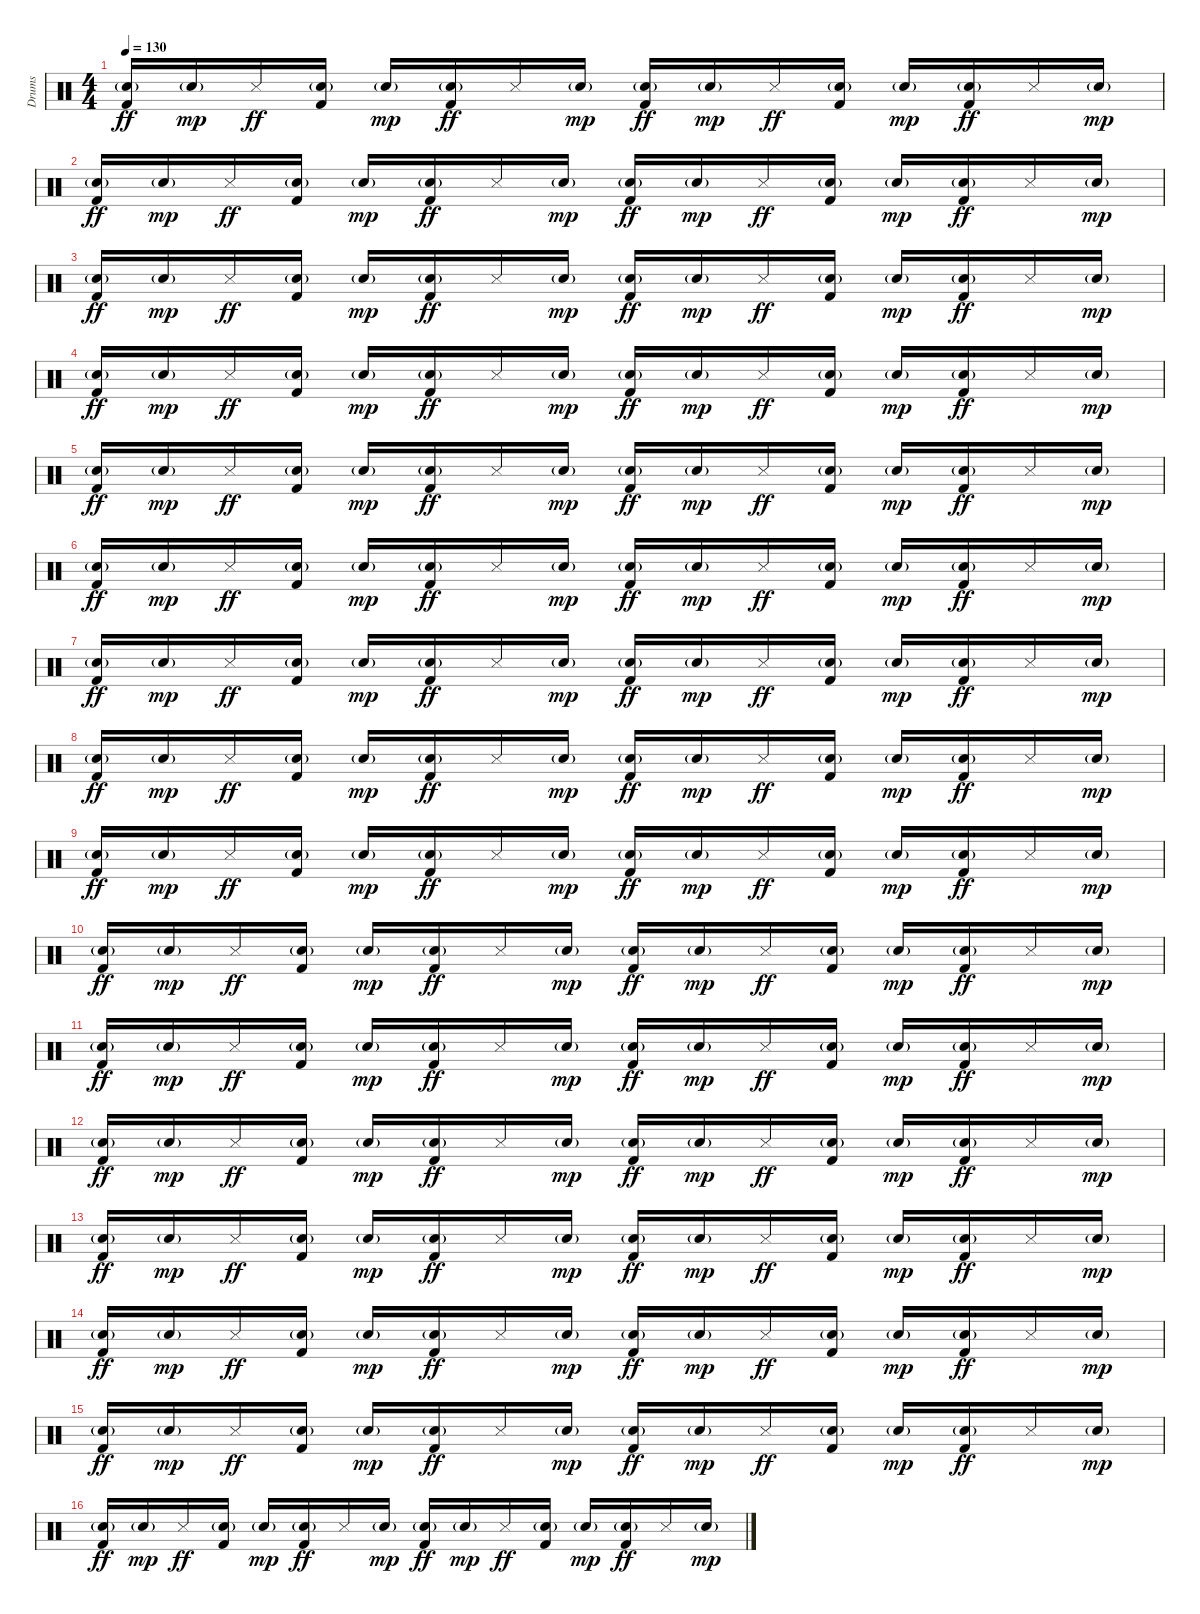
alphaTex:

\track ("Drums" "Drums") {instrument percussion}
\staff {score}
\articulation defaults
\ts (4 4)
\tempo 130
\clef neutral
\ks c
("Electric Snare (hit)"{g} "Kick (hit) 2").16{dy ff} "Electric Snare (hit)"{g}.16{dy mp} "Snare (side stick) 3".16{dy ff} ("Electric Snare (hit)"{g} "Kick (hit) 2").16 "Electric Snare (hit)"{g}.16{dy mp} ("Electric Snare (hit)"{g} "Kick (hit) 2").16{dy ff} "Snare (side stick) 3".16 "Electric Snare (hit)"{g}.16{dy mp} ("Electric Snare (hit)"{g} "Kick (hit) 2").16{dy ff} "Electric Snare (hit)"{g}.16{dy mp} "Snare (side stick) 3".16{dy ff} ("Electric Snare (hit)"{g} "Kick (hit) 2").16 "Electric Snare (hit)"{g}.16{dy mp} ("Electric Snare (hit)"{g} "Kick (hit) 2").16{dy ff} "Snare (side stick) 3".16 "Electric Snare (hit)"{g}.16{dy mp} |
("Electric Snare (hit)"{g} "Kick (hit) 2").16{dy ff} "Electric Snare (hit)"{g}.16{dy mp} "Snare (side stick) 3".16{dy ff} ("Electric Snare (hit)"{g} "Kick (hit) 2").16 "Electric Snare (hit)"{g}.16{dy mp} ("Electric Snare (hit)"{g} "Kick (hit) 2").16{dy ff} "Snare (side stick) 3".16 "Electric Snare (hit)"{g}.16{dy mp} ("Electric Snare (hit)"{g} "Kick (hit) 2").16{dy ff} "Electric Snare (hit)"{g}.16{dy mp} "Snare (side stick) 3".16{dy ff} ("Electric Snare (hit)"{g} "Kick (hit) 2").16 "Electric Snare (hit)"{g}.16{dy mp} ("Electric Snare (hit)"{g} "Kick (hit) 2").16{dy ff} "Snare (side stick) 3".16 "Electric Snare (hit)"{g}.16{dy mp} |
("Electric Snare (hit)"{g} "Kick (hit) 2").16{dy ff} "Electric Snare (hit)"{g}.16{dy mp} "Snare (side stick) 3".16{dy ff} ("Electric Snare (hit)"{g} "Kick (hit) 2").16 "Electric Snare (hit)"{g}.16{dy mp} ("Electric Snare (hit)"{g} "Kick (hit) 2").16{dy ff} "Snare (side stick) 3".16 "Electric Snare (hit)"{g}.16{dy mp} ("Electric Snare (hit)"{g} "Kick (hit) 2").16{dy ff} "Electric Snare (hit)"{g}.16{dy mp} "Snare (side stick) 3".16{dy ff} ("Electric Snare (hit)"{g} "Kick (hit) 2").16 "Electric Snare (hit)"{g}.16{dy mp} ("Electric Snare (hit)"{g} "Kick (hit) 2").16{dy ff} "Snare (side stick) 3".16 "Electric Snare (hit)"{g}.16{dy mp} |
("Electric Snare (hit)"{g} "Kick (hit) 2").16{dy ff} "Electric Snare (hit)"{g}.16{dy mp} "Snare (side stick) 3".16{dy ff} ("Electric Snare (hit)"{g} "Kick (hit) 2").16 "Electric Snare (hit)"{g}.16{dy mp} ("Electric Snare (hit)"{g} "Kick (hit) 2").16{dy ff} "Snare (side stick) 3".16 "Electric Snare (hit)"{g}.16{dy mp} ("Electric Snare (hit)"{g} "Kick (hit) 2").16{dy ff} "Electric Snare (hit)"{g}.16{dy mp} "Snare (side stick) 3".16{dy ff} ("Electric Snare (hit)"{g} "Kick (hit) 2").16 "Electric Snare (hit)"{g}.16{dy mp} ("Electric Snare (hit)"{g} "Kick (hit) 2").16{dy ff} "Snare (side stick) 3".16 "Electric Snare (hit)"{g}.16{dy mp} |
("Electric Snare (hit)"{g} "Kick (hit) 2").16{dy ff} "Electric Snare (hit)"{g}.16{dy mp} "Snare (side stick) 3".16{dy ff} ("Electric Snare (hit)"{g} "Kick (hit) 2").16 "Electric Snare (hit)"{g}.16{dy mp} ("Electric Snare (hit)"{g} "Kick (hit) 2").16{dy ff} "Snare (side stick) 3".16 "Electric Snare (hit)"{g}.16{dy mp} ("Electric Snare (hit)"{g} "Kick (hit) 2").16{dy ff} "Electric Snare (hit)"{g}.16{dy mp} "Snare (side stick) 3".16{dy ff} ("Electric Snare (hit)"{g} "Kick (hit) 2").16 "Electric Snare (hit)"{g}.16{dy mp} ("Electric Snare (hit)"{g} "Kick (hit) 2").16{dy ff} "Snare (side stick) 3".16 "Electric Snare (hit)"{g}.16{dy mp} |
("Electric Snare (hit)"{g} "Kick (hit) 2").16{dy ff} "Electric Snare (hit)"{g}.16{dy mp} "Snare (side stick) 3".16{dy ff} ("Electric Snare (hit)"{g} "Kick (hit) 2").16 "Electric Snare (hit)"{g}.16{dy mp} ("Electric Snare (hit)"{g} "Kick (hit) 2").16{dy ff} "Snare (side stick) 3".16 "Electric Snare (hit)"{g}.16{dy mp} ("Electric Snare (hit)"{g} "Kick (hit) 2").16{dy ff} "Electric Snare (hit)"{g}.16{dy mp} "Snare (side stick) 3".16{dy ff} ("Electric Snare (hit)"{g} "Kick (hit) 2").16 "Electric Snare (hit)"{g}.16{dy mp} ("Electric Snare (hit)"{g} "Kick (hit) 2").16{dy ff} "Snare (side stick) 3".16 "Electric Snare (hit)"{g}.16{dy mp} |
("Electric Snare (hit)"{g} "Kick (hit) 2").16{dy ff} "Electric Snare (hit)"{g}.16{dy mp} "Snare (side stick) 3".16{dy ff} ("Electric Snare (hit)"{g} "Kick (hit) 2").16 "Electric Snare (hit)"{g}.16{dy mp} ("Electric Snare (hit)"{g} "Kick (hit) 2").16{dy ff} "Snare (side stick) 3".16 "Electric Snare (hit)"{g}.16{dy mp} ("Electric Snare (hit)"{g} "Kick (hit) 2").16{dy ff} "Electric Snare (hit)"{g}.16{dy mp} "Snare (side stick) 3".16{dy ff} ("Electric Snare (hit)"{g} "Kick (hit) 2").16 "Electric Snare (hit)"{g}.16{dy mp} ("Electric Snare (hit)"{g} "Kick (hit) 2").16{dy ff} "Snare (side stick) 3".16 "Electric Snare (hit)"{g}.16{dy mp} |
("Electric Snare (hit)"{g} "Kick (hit) 2").16{dy ff} "Electric Snare (hit)"{g}.16{dy mp} "Snare (side stick) 3".16{dy ff} ("Electric Snare (hit)"{g} "Kick (hit) 2").16 "Electric Snare (hit)"{g}.16{dy mp} ("Electric Snare (hit)"{g} "Kick (hit) 2").16{dy ff} "Snare (side stick) 3".16 "Electric Snare (hit)"{g}.16{dy mp} ("Electric Snare (hit)"{g} "Kick (hit) 2").16{dy ff} "Electric Snare (hit)"{g}.16{dy mp} "Snare (side stick) 3".16{dy ff} ("Electric Snare (hit)"{g} "Kick (hit) 2").16 "Electric Snare (hit)"{g}.16{dy mp} ("Electric Snare (hit)"{g} "Kick (hit) 2").16{dy ff} "Snare (side stick) 3".16 "Electric Snare (hit)"{g}.16{dy mp} |
("Electric Snare (hit)"{g} "Kick (hit) 2").16{dy ff} "Electric Snare (hit)"{g}.16{dy mp} "Snare (side stick) 3".16{dy ff} ("Electric Snare (hit)"{g} "Kick (hit) 2").16 "Electric Snare (hit)"{g}.16{dy mp} ("Electric Snare (hit)"{g} "Kick (hit) 2").16{dy ff} "Snare (side stick) 3".16 "Electric Snare (hit)"{g}.16{dy mp} ("Electric Snare (hit)"{g} "Kick (hit) 2").16{dy ff} "Electric Snare (hit)"{g}.16{dy mp} "Snare (side stick) 3".16{dy ff} ("Electric Snare (hit)"{g} "Kick (hit) 2").16 "Electric Snare (hit)"{g}.16{dy mp} ("Electric Snare (hit)"{g} "Kick (hit) 2").16{dy ff} "Snare (side stick) 3".16 "Electric Snare (hit)"{g}.16{dy mp} |
("Electric Snare (hit)"{g} "Kick (hit) 2").16{dy ff} "Electric Snare (hit)"{g}.16{dy mp} "Snare (side stick) 3".16{dy ff} ("Electric Snare (hit)"{g} "Kick (hit) 2").16 "Electric Snare (hit)"{g}.16{dy mp} ("Electric Snare (hit)"{g} "Kick (hit) 2").16{dy ff} "Snare (side stick) 3".16 "Electric Snare (hit)"{g}.16{dy mp} ("Electric Snare (hit)"{g} "Kick (hit) 2").16{dy ff} "Electric Snare (hit)"{g}.16{dy mp} "Snare (side stick) 3".16{dy ff} ("Electric Snare (hit)"{g} "Kick (hit) 2").16 "Electric Snare (hit)"{g}.16{dy mp} ("Electric Snare (hit)"{g} "Kick (hit) 2").16{dy ff} "Snare (side stick) 3".16 "Electric Snare (hit)"{g}.16{dy mp} |
("Electric Snare (hit)"{g} "Kick (hit) 2").16{dy ff} "Electric Snare (hit)"{g}.16{dy mp} "Snare (side stick) 3".16{dy ff} ("Electric Snare (hit)"{g} "Kick (hit) 2").16 "Electric Snare (hit)"{g}.16{dy mp} ("Electric Snare (hit)"{g} "Kick (hit) 2").16{dy ff} "Snare (side stick) 3".16 "Electric Snare (hit)"{g}.16{dy mp} ("Electric Snare (hit)"{g} "Kick (hit) 2").16{dy ff} "Electric Snare (hit)"{g}.16{dy mp} "Snare (side stick) 3".16{dy ff} ("Electric Snare (hit)"{g} "Kick (hit) 2").16 "Electric Snare (hit)"{g}.16{dy mp} ("Electric Snare (hit)"{g} "Kick (hit) 2").16{dy ff} "Snare (side stick) 3".16 "Electric Snare (hit)"{g}.16{dy mp} |
("Electric Snare (hit)"{g} "Kick (hit) 2").16{dy ff} "Electric Snare (hit)"{g}.16{dy mp} "Snare (side stick) 3".16{dy ff} ("Electric Snare (hit)"{g} "Kick (hit) 2").16 "Electric Snare (hit)"{g}.16{dy mp} ("Electric Snare (hit)"{g} "Kick (hit) 2").16{dy ff} "Snare (side stick) 3".16 "Electric Snare (hit)"{g}.16{dy mp} ("Electric Snare (hit)"{g} "Kick (hit) 2").16{dy ff} "Electric Snare (hit)"{g}.16{dy mp} "Snare (side stick) 3".16{dy ff} ("Electric Snare (hit)"{g} "Kick (hit) 2").16 "Electric Snare (hit)"{g}.16{dy mp} ("Electric Snare (hit)"{g} "Kick (hit) 2").16{dy ff} "Snare (side stick) 3".16 "Electric Snare (hit)"{g}.16{dy mp} |
("Electric Snare (hit)"{g} "Kick (hit) 2").16{dy ff} "Electric Snare (hit)"{g}.16{dy mp} "Snare (side stick) 3".16{dy ff} ("Electric Snare (hit)"{g} "Kick (hit) 2").16 "Electric Snare (hit)"{g}.16{dy mp} ("Electric Snare (hit)"{g} "Kick (hit) 2").16{dy ff} "Snare (side stick) 3".16 "Electric Snare (hit)"{g}.16{dy mp} ("Electric Snare (hit)"{g} "Kick (hit) 2").16{dy ff} "Electric Snare (hit)"{g}.16{dy mp} "Snare (side stick) 3".16{dy ff} ("Electric Snare (hit)"{g} "Kick (hit) 2").16 "Electric Snare (hit)"{g}.16{dy mp} ("Electric Snare (hit)"{g} "Kick (hit) 2").16{dy ff} "Snare (side stick) 3".16 "Electric Snare (hit)"{g}.16{dy mp} |
("Electric Snare (hit)"{g} "Kick (hit) 2").16{dy ff} "Electric Snare (hit)"{g}.16{dy mp} "Snare (side stick) 3".16{dy ff} ("Electric Snare (hit)"{g} "Kick (hit) 2").16 "Electric Snare (hit)"{g}.16{dy mp} ("Electric Snare (hit)"{g} "Kick (hit) 2").16{dy ff} "Snare (side stick) 3".16 "Electric Snare (hit)"{g}.16{dy mp} ("Electric Snare (hit)"{g} "Kick (hit) 2").16{dy ff} "Electric Snare (hit)"{g}.16{dy mp} "Snare (side stick) 3".16{dy ff} ("Electric Snare (hit)"{g} "Kick (hit) 2").16 "Electric Snare (hit)"{g}.16{dy mp} ("Electric Snare (hit)"{g} "Kick (hit) 2").16{dy ff} "Snare (side stick) 3".16 "Electric Snare (hit)"{g}.16{dy mp} |
("Electric Snare (hit)"{g} "Kick (hit) 2").16{dy ff} "Electric Snare (hit)"{g}.16{dy mp} "Snare (side stick) 3".16{dy ff} ("Electric Snare (hit)"{g} "Kick (hit) 2").16 "Electric Snare (hit)"{g}.16{dy mp} ("Electric Snare (hit)"{g} "Kick (hit) 2").16{dy ff} "Snare (side stick) 3".16 "Electric Snare (hit)"{g}.16{dy mp} ("Electric Snare (hit)"{g} "Kick (hit) 2").16{dy ff} "Electric Snare (hit)"{g}.16{dy mp} "Snare (side stick) 3".16{dy ff} ("Electric Snare (hit)"{g} "Kick (hit) 2").16 "Electric Snare (hit)"{g}.16{dy mp} ("Electric Snare (hit)"{g} "Kick (hit) 2").16{dy ff} "Snare (side stick) 3".16 "Electric Snare (hit)"{g}.16{dy mp} |
("Electric Snare (hit)"{g} "Kick (hit) 2").16{dy ff} "Electric Snare (hit)"{g}.16{dy mp} "Snare (side stick) 3".16{dy ff} ("Electric Snare (hit)"{g} "Kick (hit) 2").16 "Electric Snare (hit)"{g}.16{dy mp} ("Electric Snare (hit)"{g} "Kick (hit) 2").16{dy ff} "Snare (side stick) 3".16 "Electric Snare (hit)"{g}.16{dy mp} ("Electric Snare (hit)"{g} "Kick (hit) 2").16{dy ff} "Electric Snare (hit)"{g}.16{dy mp} "Snare (side stick) 3".16{dy ff} ("Electric Snare (hit)"{g} "Kick (hit) 2").16 "Electric Snare (hit)"{g}.16{dy mp} ("Electric Snare (hit)"{g} "Kick (hit) 2").16{dy ff} "Snare (side stick) 3".16 "Electric Snare (hit)"{g}.16{dy mp}
